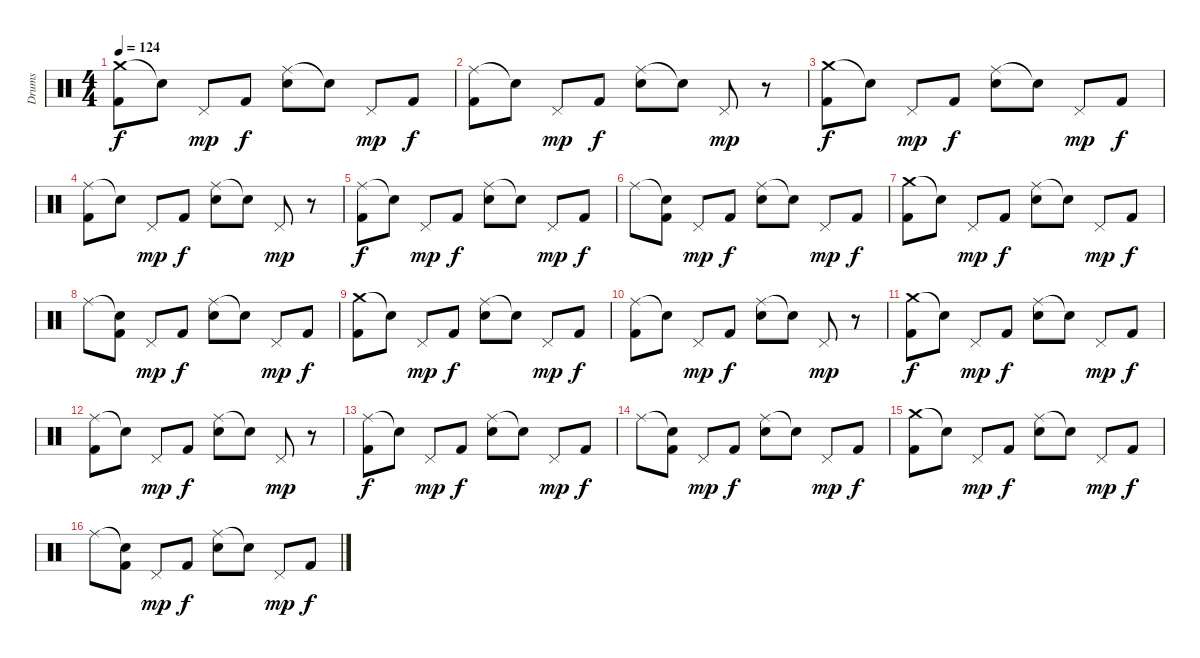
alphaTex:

\track ("Drums" "Drums") {instrument percussion}
\staff {score}
\articulation defaults
\ts (4 4)
\tempo 124
\clef neutral
\ks c
("Crash medium (hit)" "Kick (hit) 2").8{dy f} "Snare (hit)"{t}.8 "Pedal Hi-Hat (hit)".8{dy mp} "Kick (hit) 2".8{dy f} ("Ride (middle)" "Electric Snare (hit)").8 "Snare (hit)"{t}.8 "Pedal Hi-Hat (hit)".8{dy mp} "Kick (hit) 2".8{dy f} |
("Ride (middle)" "Kick (hit) 2").8 "Snare (hit)"{t}.8 "Pedal Hi-Hat (hit)".8{dy mp} "Kick (hit) 2".8{dy f} ("Ride (middle)" "Electric Snare (hit)").8 "Snare (hit)"{t}.8 "Pedal Hi-Hat (hit)".8{dy mp} r.8 |
("Crash medium (hit)" "Kick (hit) 2").8{dy f} "Snare (hit)"{t}.8 "Pedal Hi-Hat (hit)".8{dy mp} "Kick (hit) 2".8{dy f} ("Ride (middle)" "Electric Snare (hit)").8 "Snare (hit)"{t}.8 "Pedal Hi-Hat (hit)".8{dy mp} "Kick (hit) 2".8{dy f} |
("Ride (middle)" "Kick (hit) 2").8 "Snare (hit)"{t}.8 "Pedal Hi-Hat (hit)".8{dy mp} "Kick (hit) 2".8{dy f} ("Ride (middle)" "Electric Snare (hit)").8 "Snare (hit)"{t}.8 "Pedal Hi-Hat (hit)".8{dy mp} r.8 |
("Ride (middle)" "Kick (hit) 2").8{dy f} "Snare (hit)"{t}.8 "Pedal Hi-Hat (hit)".8{dy mp} "Kick (hit) 2".8{dy f} ("Ride (middle)" "Electric Snare (hit)").8 "Snare (hit)"{t}.8 "Pedal Hi-Hat (hit)".8{dy mp} "Kick (hit) 2".8{dy f} |
"Ride (middle)".8 ("Snare (hit)"{t} "Kick (hit) 2").8 "Pedal Hi-Hat (hit)".8{dy mp} "Kick (hit) 2".8{dy f} ("Ride (middle)" "Electric Snare (hit)").8 "Snare (hit)"{t}.8 "Pedal Hi-Hat (hit)".8{dy mp} "Kick (hit) 2".8{dy f} |
("Crash medium (hit)" "Kick (hit) 2").8 "Snare (hit)"{t}.8 "Pedal Hi-Hat (hit)".8{dy mp} "Kick (hit) 2".8{dy f} ("Ride (middle)" "Electric Snare (hit)").8 "Snare (hit)"{t}.8 "Pedal Hi-Hat (hit)".8{dy mp} "Kick (hit) 2".8{dy f} |
"Ride (middle)".8 ("Snare (hit)"{t} "Kick (hit) 2").8 "Pedal Hi-Hat (hit)".8{dy mp} "Kick (hit) 2".8{dy f} ("Ride (middle)" "Electric Snare (hit)").8 "Snare (hit)"{t}.8 "Pedal Hi-Hat (hit)".8{dy mp} "Kick (hit) 2".8{dy f} |
("Crash medium (hit)" "Kick (hit) 2").8 "Snare (hit)"{t}.8 "Pedal Hi-Hat (hit)".8{dy mp} "Kick (hit) 2".8{dy f} ("Ride (middle)" "Electric Snare (hit)").8 "Snare (hit)"{t}.8 "Pedal Hi-Hat (hit)".8{dy mp} "Kick (hit) 2".8{dy f} |
("Ride (middle)" "Kick (hit) 2").8 "Snare (hit)"{t}.8 "Pedal Hi-Hat (hit)".8{dy mp} "Kick (hit) 2".8{dy f} ("Ride (middle)" "Electric Snare (hit)").8 "Snare (hit)"{t}.8 "Pedal Hi-Hat (hit)".8{dy mp} r.8 |
("Crash medium (hit)" "Kick (hit) 2").8{dy f} "Snare (hit)"{t}.8 "Pedal Hi-Hat (hit)".8{dy mp} "Kick (hit) 2".8{dy f} ("Ride (middle)" "Electric Snare (hit)").8 "Snare (hit)"{t}.8 "Pedal Hi-Hat (hit)".8{dy mp} "Kick (hit) 2".8{dy f} |
("Ride (middle)" "Kick (hit) 2").8 "Snare (hit)"{t}.8 "Pedal Hi-Hat (hit)".8{dy mp} "Kick (hit) 2".8{dy f} ("Ride (middle)" "Electric Snare (hit)").8 "Snare (hit)"{t}.8 "Pedal Hi-Hat (hit)".8{dy mp} r.8 |
("Ride (middle)" "Kick (hit) 2").8{dy f} "Snare (hit)"{t}.8 "Pedal Hi-Hat (hit)".8{dy mp} "Kick (hit) 2".8{dy f} ("Ride (middle)" "Electric Snare (hit)").8 "Snare (hit)"{t}.8 "Pedal Hi-Hat (hit)".8{dy mp} "Kick (hit) 2".8{dy f} |
"Ride (middle)".8 ("Snare (hit)"{t} "Kick (hit) 2").8 "Pedal Hi-Hat (hit)".8{dy mp} "Kick (hit) 2".8{dy f} ("Ride (middle)" "Electric Snare (hit)").8 "Snare (hit)"{t}.8 "Pedal Hi-Hat (hit)".8{dy mp} "Kick (hit) 2".8{dy f} |
("Crash medium (hit)" "Kick (hit) 2").8 "Snare (hit)"{t}.8 "Pedal Hi-Hat (hit)".8{dy mp} "Kick (hit) 2".8{dy f} ("Ride (middle)" "Electric Snare (hit)").8 "Snare (hit)"{t}.8 "Pedal Hi-Hat (hit)".8{dy mp} "Kick (hit) 2".8{dy f} |
"Ride (middle)".8 ("Snare (hit)"{t} "Kick (hit) 2").8 "Pedal Hi-Hat (hit)".8{dy mp} "Kick (hit) 2".8{dy f} ("Ride (middle)" "Electric Snare (hit)").8 "Snare (hit)"{t}.8 "Pedal Hi-Hat (hit)".8{dy mp} "Kick (hit) 2".8{dy f}
